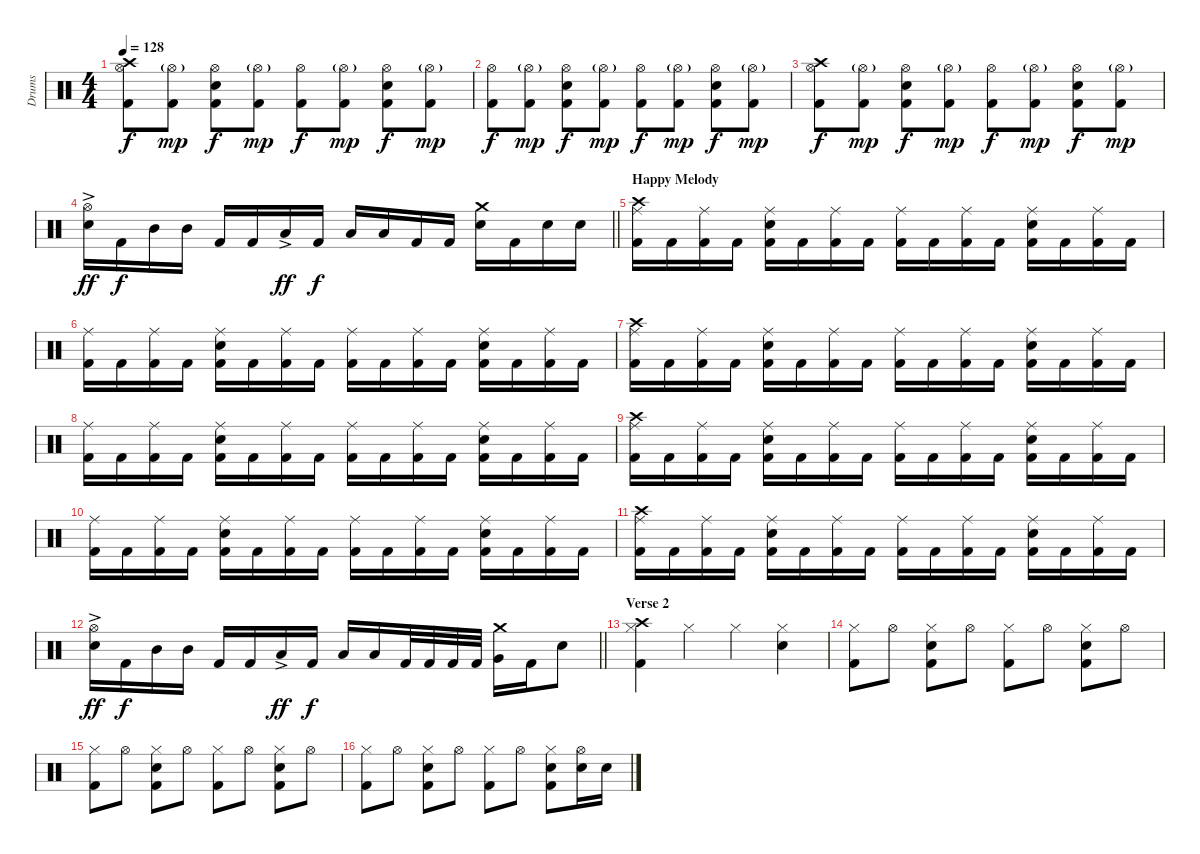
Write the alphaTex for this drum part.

\track ("Drums" "Drums") {instrument percussion}
\staff {score}
\articulation defaults
\ts (4 4)
\tempo 128
\clef neutral
\ks c
("Crash high (hit)" "Hi-Hat (open)" "Kick (hit) 2").8{dy f} ("Hi-Hat (open)"{g} "Kick (hit) 2").8{dy mp} ("Hi-Hat (open)" "Snare (hit) 2" "Kick (hit) 2").8{dy f} ("Hi-Hat (open)"{g} "Kick (hit) 2").8{dy mp} ("Hi-Hat (open)" "Kick (hit) 2").8{dy f} ("Hi-Hat (open)"{g} "Kick (hit) 2").8{dy mp} ("Hi-Hat (open)" "Snare (hit) 2" "Kick (hit) 2").8{dy f} ("Hi-Hat (open)"{g} "Kick (hit) 2").8{dy mp} |
("Hi-Hat (open)" "Kick (hit) 2").8{dy f} ("Hi-Hat (open)"{g} "Kick (hit) 2").8{dy mp} ("Hi-Hat (open)" "Snare (hit) 2" "Kick (hit) 2").8{dy f} ("Hi-Hat (open)"{g} "Kick (hit) 2").8{dy mp} ("Hi-Hat (open)" "Kick (hit) 2").8{dy f} ("Hi-Hat (open)"{g} "Kick (hit) 2").8{dy mp} ("Hi-Hat (open)" "Snare (hit) 2" "Kick (hit) 2").8{dy f} ("Hi-Hat (open)"{g} "Kick (hit) 2").8{dy mp} |
("Crash high (hit)" "Hi-Hat (open)" "Kick (hit) 2").8{dy f} ("Hi-Hat (open)"{g} "Kick (hit) 2").8{dy mp} ("Hi-Hat (open)" "Snare (hit) 2" "Kick (hit) 2").8{dy f} ("Hi-Hat (open)"{g} "Kick (hit) 2").8{dy mp} ("Hi-Hat (open)" "Kick (hit) 2").8{dy f} ("Hi-Hat (open)"{g} "Kick (hit) 2").8{dy mp} ("Hi-Hat (open)" "Snare (hit) 2" "Kick (hit) 2").8{dy f} ("Hi-Hat (open)"{g} "Kick (hit) 2").8{dy mp} |
\barLineRight lightlight
("Hi-Hat (open)" "Snare (hit) 2"{ac}).16{dy ff} "Kick (hit) 2".16{dy f} "Mid Tom (hit)".16 "Mid Tom (hit)".16 "Kick (hit) 2".16 "Kick (hit) 2".16 "Low Tom (hit)"{ac}.16{dy ff} "Kick (hit) 2".16{dy f} "Low Tom (hit)".16 "Low Tom (hit)".16 "Kick (hit) 2".16 "Kick (hit) 2".16 ("Crash medium (hit)" "Snare (hit) 2").16 "Kick (hit) 2".16 "Snare (hit) 2".16 "Snare (hit) 2".16 |
\section ("" "Happy Melody")
("Crash high (hit)" "Ride (middle)" "Kick (hit) 2").16 "Kick (hit) 2".16 ("Ride (middle)" "Kick (hit) 2").16 "Kick (hit) 2".16 ("Ride (middle)" "Snare (hit) 2" "Kick (hit) 2").16 "Kick (hit) 2".16 ("Ride (middle)" "Kick (hit) 2").16 "Kick (hit) 2".16 ("Ride (middle)" "Kick (hit) 2").16 "Kick (hit) 2".16 ("Ride (middle)" "Kick (hit) 2").16 "Kick (hit) 2".16 ("Ride (middle)" "Snare (hit) 2" "Kick (hit) 2").16 "Kick (hit) 2".16 ("Ride (middle)" "Kick (hit) 2").16 "Kick (hit) 2".16 |
("Ride (middle)" "Kick (hit) 2").16 "Kick (hit) 2".16 ("Ride (middle)" "Kick (hit) 2").16 "Kick (hit) 2".16 ("Ride (middle)" "Snare (hit) 2" "Kick (hit) 2").16 "Kick (hit) 2".16 ("Ride (middle)" "Kick (hit) 2").16 "Kick (hit) 2".16 ("Ride (middle)" "Kick (hit) 2").16 "Kick (hit) 2".16 ("Ride (middle)" "Kick (hit) 2").16 "Kick (hit) 2".16 ("Ride (middle)" "Snare (hit) 2" "Kick (hit) 2").16 "Kick (hit) 2".16 ("Ride (middle)" "Kick (hit) 2").16 "Kick (hit) 2".16 |
("Crash high (hit)" "Ride (middle)" "Kick (hit) 2").16 "Kick (hit) 2".16 ("Ride (middle)" "Kick (hit) 2").16 "Kick (hit) 2".16 ("Ride (middle)" "Snare (hit) 2" "Kick (hit) 2").16 "Kick (hit) 2".16 ("Ride (middle)" "Kick (hit) 2").16 "Kick (hit) 2".16 ("Ride (middle)" "Kick (hit) 2").16 "Kick (hit) 2".16 ("Ride (middle)" "Kick (hit) 2").16 "Kick (hit) 2".16 ("Ride (middle)" "Snare (hit) 2" "Kick (hit) 2").16 "Kick (hit) 2".16 ("Ride (middle)" "Kick (hit) 2").16 "Kick (hit) 2".16 |
("Ride (middle)" "Kick (hit) 2").16 "Kick (hit) 2".16 ("Ride (middle)" "Kick (hit) 2").16 "Kick (hit) 2".16 ("Ride (middle)" "Snare (hit) 2" "Kick (hit) 2").16 "Kick (hit) 2".16 ("Ride (middle)" "Kick (hit) 2").16 "Kick (hit) 2".16 ("Ride (middle)" "Kick (hit) 2").16 "Kick (hit) 2".16 ("Ride (middle)" "Kick (hit) 2").16 "Kick (hit) 2".16 ("Ride (middle)" "Snare (hit) 2" "Kick (hit) 2").16 "Kick (hit) 2".16 ("Ride (middle)" "Kick (hit) 2").16 "Kick (hit) 2".16 |
("Crash high (hit)" "Ride (middle)" "Kick (hit) 2").16 "Kick (hit) 2".16 ("Ride (middle)" "Kick (hit) 2").16 "Kick (hit) 2".16 ("Ride (middle)" "Snare (hit) 2" "Kick (hit) 2").16 "Kick (hit) 2".16 ("Ride (middle)" "Kick (hit) 2").16 "Kick (hit) 2".16 ("Ride (middle)" "Kick (hit) 2").16 "Kick (hit) 2".16 ("Ride (middle)" "Kick (hit) 2").16 "Kick (hit) 2".16 ("Ride (middle)" "Snare (hit) 2" "Kick (hit) 2").16 "Kick (hit) 2".16 ("Ride (middle)" "Kick (hit) 2").16 "Kick (hit) 2".16 |
("Ride (middle)" "Kick (hit) 2").16 "Kick (hit) 2".16 ("Ride (middle)" "Kick (hit) 2").16 "Kick (hit) 2".16 ("Ride (middle)" "Snare (hit) 2" "Kick (hit) 2").16 "Kick (hit) 2".16 ("Ride (middle)" "Kick (hit) 2").16 "Kick (hit) 2".16 ("Ride (middle)" "Kick (hit) 2").16 "Kick (hit) 2".16 ("Ride (middle)" "Kick (hit) 2").16 "Kick (hit) 2".16 ("Ride (middle)" "Snare (hit) 2" "Kick (hit) 2").16 "Kick (hit) 2".16 ("Ride (middle)" "Kick (hit) 2").16 "Kick (hit) 2".16 |
("Crash high (hit)" "Ride (middle)" "Kick (hit) 2").16 "Kick (hit) 2".16 ("Ride (middle)" "Kick (hit) 2").16 "Kick (hit) 2".16 ("Ride (middle)" "Snare (hit) 2" "Kick (hit) 2").16 "Kick (hit) 2".16 ("Ride (middle)" "Kick (hit) 2").16 "Kick (hit) 2".16 ("Ride (middle)" "Kick (hit) 2").16 "Kick (hit) 2".16 ("Ride (middle)" "Kick (hit) 2").16 "Kick (hit) 2".16 ("Ride (middle)" "Snare (hit) 2" "Kick (hit) 2").16 "Kick (hit) 2".16 ("Ride (middle)" "Kick (hit) 2").16 "Kick (hit) 2".16 |
\barLineRight lightlight
("Hi-Hat (open)" "Snare (hit) 2"{ac}).16{dy ff} "Kick (hit) 2".16{dy f} "Mid Tom (hit)".16 "Mid Tom (hit)".16 "Kick (hit) 2".16 "Kick (hit) 2".16 "Low Tom (hit)"{ac}.16{dy ff} "Kick (hit) 2".16{dy f} "Low Tom (hit)".16 "Low Tom (hit)".16 "Kick (hit) 2".32 "Kick (hit) 2".32 "Kick (hit) 2".32 "Kick (hit) 2".32 ("Crash medium (hit)" "Very Low Tom (hit)").16 "Kick (hit) 2".16 "Snare (hit) 2".8 |
\section ("" "Verse 2")
("Crash high (hit)" "Hi-Hat (closed)" "Kick (hit) 2").4 "Hi-Hat (closed)".4 "Hi-Hat (closed)".4 ("Hi-Hat (closed)" "Snare (hit) 2").4 |
("Hi-Hat (closed)" "Kick (hit) 2").8 "Hi-Hat (open)".8 ("Hi-Hat (closed)" "Snare (hit) 2" "Kick (hit) 2").8 "Hi-Hat (open)".8 ("Hi-Hat (closed)" "Kick (hit) 2").8 "Hi-Hat (open)".8 ("Hi-Hat (closed)" "Snare (hit) 2" "Kick (hit) 2").8 "Hi-Hat (open)".8 |
("Hi-Hat (closed)" "Kick (hit) 2").8 "Hi-Hat (open)".8 ("Hi-Hat (closed)" "Snare (hit) 2" "Kick (hit) 2").8 "Hi-Hat (open)".8 ("Hi-Hat (closed)" "Kick (hit) 2").8 "Hi-Hat (open)".8 ("Hi-Hat (closed)" "Snare (hit) 2" "Kick (hit) 2").8 "Hi-Hat (open)".8 |
("Hi-Hat (closed)" "Kick (hit) 2").8 "Hi-Hat (open)".8 ("Hi-Hat (closed)" "Snare (hit) 2" "Kick (hit) 2").8 "Hi-Hat (open)".8 ("Hi-Hat (closed)" "Kick (hit) 2").8 "Hi-Hat (open)".8 ("Hi-Hat (closed)" "Snare (hit) 2" "Kick (hit) 2").8 ("Hi-Hat (open)" "Snare (hit) 2").16 "Snare (hit) 2".16
